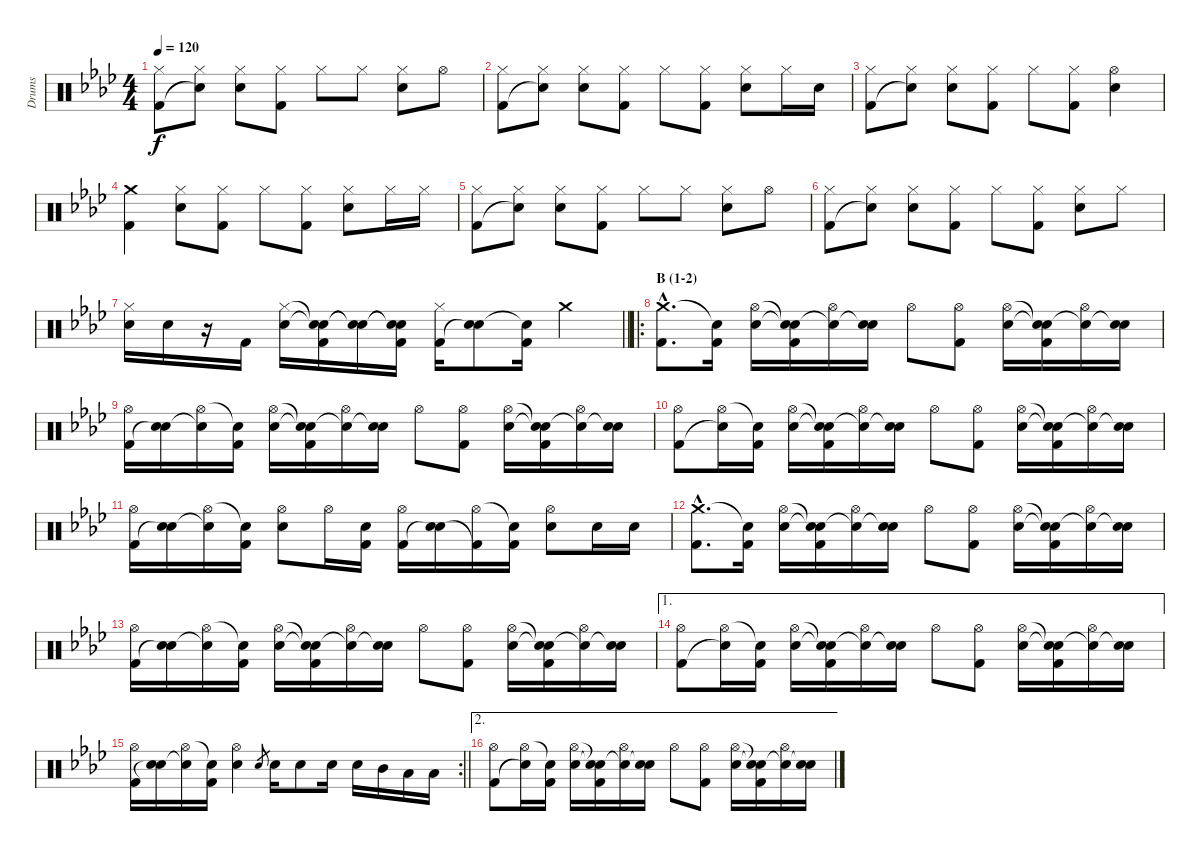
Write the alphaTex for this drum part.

\track ("Drums" "Drums") {instrument percussion}
\staff {score}
\articulation defaults
\ts (4 4)
\tempo 120
\clef neutral
\ks fminor
("Hi-Hat (closed)" "Kick (hit) 2").8{dy f} ("Hi-Hat (closed)" "Snare (hit)"{t}).8 ("Hi-Hat (closed)" "Electric Snare (hit)").8 ("Hi-Hat (closed)" "Kick (hit) 2").8 "Hi-Hat (closed)".8 "Hi-Hat (closed)".8 ("Hi-Hat (closed)" "Electric Snare (hit)").8 "Hi-Hat (open)".8 |
("Hi-Hat (closed)" "Kick (hit) 2").8 ("Hi-Hat (closed)" "Snare (hit)"{t}).8 ("Hi-Hat (closed)" "Electric Snare (hit)").8 ("Hi-Hat (closed)" "Kick (hit) 2").8 "Hi-Hat (closed)".8 ("Hi-Hat (closed)" "Kick (hit) 2").8 ("Hi-Hat (closed)" "Electric Snare (hit)").8 "Hi-Hat (closed)".16 "Electric Snare (hit)".16 |
("Hi-Hat (closed)" "Kick (hit) 2").8 ("Hi-Hat (closed)" "Snare (hit)"{t}).8 ("Hi-Hat (closed)" "Electric Snare (hit)").8 ("Hi-Hat (closed)" "Kick (hit) 2").8 "Hi-Hat (closed)".8 ("Hi-Hat (closed)" "Kick (hit) 2").8 ("Hi-Hat (open)" "Electric Snare (hit)").4 |
("Crash medium (hit)" "Kick (hit) 2").4 ("Hi-Hat (closed)" "Electric Snare (hit)").8 ("Hi-Hat (closed)" "Kick (hit) 2").8 "Hi-Hat (closed)".8 ("Hi-Hat (closed)" "Kick (hit) 2").8 ("Hi-Hat (closed)" "Electric Snare (hit)").8 "Hi-Hat (closed)".16 "Hi-Hat (closed)".16 |
("Hi-Hat (closed)" "Kick (hit) 2").8 ("Hi-Hat (closed)" "Snare (hit)"{t}).8 ("Hi-Hat (closed)" "Electric Snare (hit)").8 ("Hi-Hat (closed)" "Kick (hit) 2").8 "Hi-Hat (closed)".8 "Hi-Hat (closed)".8 ("Hi-Hat (closed)" "Electric Snare (hit)").8 "Hi-Hat (open)".8 |
("Hi-Hat (closed)" "Kick (hit) 2").8 ("Hi-Hat (closed)" "Snare (hit)"{t}).8 ("Hi-Hat (closed)" "Electric Snare (hit)").8 ("Hi-Hat (closed)" "Kick (hit) 2").8 "Hi-Hat (closed)".8 ("Hi-Hat (closed)" "Kick (hit) 2").8 ("Hi-Hat (closed)" "Electric Snare (hit)").8 "Hi-Hat (closed)".8 |
\barLineRight lightlight
("Hi-Hat (closed)" "Electric Snare (hit)").16 "Electric Snare (hit)".16 r.16 "Kick (hit) 2".16 ("Hi-Hat (closed)" "Electric Snare (hit)").16 ("Snare (hit)"{t} "Snare (hit)"{t} "Kick (hit) 2").16 ("Snare (hit)"{t} "Snare (hit)"{t}).16 ("Snare (hit)"{t} "Snare (hit)"{t} "Kick (hit) 2").16 ("Hi-Hat (closed)" "Kick (hit) 2").16 ("Electric Snare (hit)" "Snare (hit)"{t}).8 ("Snare (hit)"{t} "Kick (hit) 2").16 "Crash medium (hit)".4 |
\ro
\section ("" "B (1-2)")
("Crash medium (hit)"{hac} "Kick (hit) 2"{hac}).8{d} ("Snare (hit)"{t} "Kick (hit) 2").16 ("Hi-Hat (open)" "Electric Snare (hit)").16 ("Snare (hit)"{t} "Snare (hit)"{t} "Kick (hit) 2").16 ("Hi-Hat (open)" "Snare (hit)"{t}).16 ("Electric Snare (hit)" "Snare (hit)"{t}).16 "Hi-Hat (open)".8 ("Hi-Hat (open)" "Kick (hit) 2").8 ("Hi-Hat (open)" "Electric Snare (hit)").16 ("Snare (hit)"{t} "Snare (hit)"{t} "Kick (hit) 2").16 ("Hi-Hat (open)" "Snare (hit)"{t}).16 ("Electric Snare (hit)" "Snare (hit)"{t}).16 |
("Hi-Hat (open)" "Kick (hit) 2").16 ("Electric Snare (hit)" "Snare (hit)"{t}).16 ("Hi-Hat (open)" "Snare (hit)"{t}).16 ("Snare (hit)"{t} "Kick (hit) 2").16 ("Hi-Hat (open)" "Electric Snare (hit)").16 ("Snare (hit)"{t} "Snare (hit)"{t} "Kick (hit) 2").16 ("Hi-Hat (open)" "Snare (hit)"{t}).16 ("Electric Snare (hit)" "Snare (hit)"{t}).16 "Hi-Hat (open)".8 ("Hi-Hat (open)" "Kick (hit) 2").8 ("Hi-Hat (open)" "Electric Snare (hit)").16 ("Snare (hit)"{t} "Snare (hit)"{t} "Kick (hit) 2").16 ("Hi-Hat (open)" "Snare (hit)"{t}).16 ("Electric Snare (hit)" "Snare (hit)"{t}).16 |
("Hi-Hat (open)" "Kick (hit) 2").8 ("Hi-Hat (open)" "Snare (hit)"{t}).16 ("Snare (hit)"{t} "Kick (hit) 2").16 ("Hi-Hat (open)" "Electric Snare (hit)").16 ("Snare (hit)"{t} "Snare (hit)"{t} "Kick (hit) 2").16 ("Hi-Hat (open)" "Snare (hit)"{t}).16 ("Electric Snare (hit)" "Snare (hit)"{t}).16 "Hi-Hat (open)".8 ("Hi-Hat (open)" "Kick (hit) 2").8 ("Hi-Hat (open)" "Electric Snare (hit)").16 ("Snare (hit)"{t} "Snare (hit)"{t} "Kick (hit) 2").16 ("Hi-Hat (open)" "Snare (hit)"{t}).16 ("Electric Snare (hit)" "Snare (hit)"{t}).16 |
("Hi-Hat (open)" "Kick (hit) 2").16 ("Electric Snare (hit)" "Snare (hit)"{t}).16 ("Hi-Hat (open)" "Snare (hit)"{t}).16 ("Snare (hit)"{t} "Kick (hit) 2").16 ("Hi-Hat (open)" "Electric Snare (hit)").8 "Hi-Hat (open)".16 ("Electric Snare (hit)" "Kick (hit) 2").16 ("Hi-Hat (open)" "Kick (hit) 2").16 ("Electric Snare (hit)" "Snare (hit)"{t}).16 ("Hi-Hat (open)" "Kick (hit) 2"{t}).16 ("Snare (hit)"{t} "Kick (hit) 2").16 ("Hi-Hat (open)" "Electric Snare (hit)").8 "Electric Snare (hit)".16 "Electric Snare (hit)".16 |
("Crash medium (hit)"{hac} "Kick (hit) 2"{hac}).8{d} ("Snare (hit)"{t} "Kick (hit) 2").16 ("Hi-Hat (open)" "Electric Snare (hit)").16 ("Snare (hit)"{t} "Snare (hit)"{t} "Kick (hit) 2").16 ("Hi-Hat (open)" "Snare (hit)"{t}).16 ("Electric Snare (hit)" "Snare (hit)"{t}).16 "Hi-Hat (open)".8 ("Hi-Hat (open)" "Kick (hit) 2").8 ("Hi-Hat (open)" "Electric Snare (hit)").16 ("Snare (hit)"{t} "Snare (hit)"{t} "Kick (hit) 2").16 ("Hi-Hat (open)" "Snare (hit)"{t}).16 ("Electric Snare (hit)" "Snare (hit)"{t}).16 |
("Hi-Hat (open)" "Kick (hit) 2").16 ("Electric Snare (hit)" "Snare (hit)"{t}).16 ("Hi-Hat (open)" "Snare (hit)"{t}).16 ("Snare (hit)"{t} "Kick (hit) 2").16 ("Hi-Hat (open)" "Electric Snare (hit)").16 ("Snare (hit)"{t} "Snare (hit)"{t} "Kick (hit) 2").16 ("Hi-Hat (open)" "Snare (hit)"{t}).16 ("Electric Snare (hit)" "Snare (hit)"{t}).16 "Hi-Hat (open)".8 ("Hi-Hat (open)" "Kick (hit) 2").8 ("Hi-Hat (open)" "Electric Snare (hit)").16 ("Snare (hit)"{t} "Snare (hit)"{t} "Kick (hit) 2").16 ("Hi-Hat (open)" "Snare (hit)"{t}).16 ("Electric Snare (hit)" "Snare (hit)"{t}).16 |
\ae 1
("Hi-Hat (open)" "Kick (hit) 2").8 ("Hi-Hat (open)" "Snare (hit)"{t}).16 ("Snare (hit)"{t} "Kick (hit) 2").16 ("Hi-Hat (open)" "Electric Snare (hit)").16 ("Snare (hit)"{t} "Snare (hit)"{t} "Kick (hit) 2").16 ("Hi-Hat (open)" "Snare (hit)"{t}).16 ("Electric Snare (hit)" "Snare (hit)"{t}).16 "Hi-Hat (open)".8 ("Hi-Hat (open)" "Kick (hit) 2").8 ("Hi-Hat (open)" "Electric Snare (hit)").16 ("Snare (hit)"{t} "Snare (hit)"{t} "Kick (hit) 2").16 ("Hi-Hat (open)" "Snare (hit)"{t}).16 ("Electric Snare (hit)" "Snare (hit)"{t}).16 |
\rc 2
\barLineRight lightlight
("Hi-Hat (open)" "Kick (hit) 2").16 ("Electric Snare (hit)" "Snare (hit)"{t}).16 ("Hi-Hat (open)" "Snare (hit)"{t}).16 ("Snare (hit)"{t} "Kick (hit) 2").16 ("Hi-Hat (open)" "Electric Snare (hit)").4 "Electric Snare (hit)".8{gr} "Electric Snare (hit)".16 "Electric Snare (hit)".8 "Electric Snare (hit)".16 "Electric Snare (hit)".16 "Mid Tom (hit)".16 "Low Tom (hit)".16 "Low Floor Tom (hit)".16 |
\ae 2
("Hi-Hat (open)" "Kick (hit) 2").8 ("Hi-Hat (open)" "Snare (hit)"{t}).16 ("Snare (hit)"{t} "Kick (hit) 2").16 ("Hi-Hat (open)" "Electric Snare (hit)").16 ("Snare (hit)"{t} "Snare (hit)"{t} "Kick (hit) 2").16 ("Hi-Hat (open)" "Snare (hit)"{t}).16 ("Electric Snare (hit)" "Snare (hit)"{t}).16 "Hi-Hat (open)".8 ("Hi-Hat (open)" "Kick (hit) 2").8 ("Hi-Hat (open)" "Electric Snare (hit)").16 ("Snare (hit)"{t} "Snare (hit)"{t} "Kick (hit) 2").16 ("Hi-Hat (open)" "Snare (hit)"{t}).16 ("Electric Snare (hit)" "Snare (hit)"{t}).16
